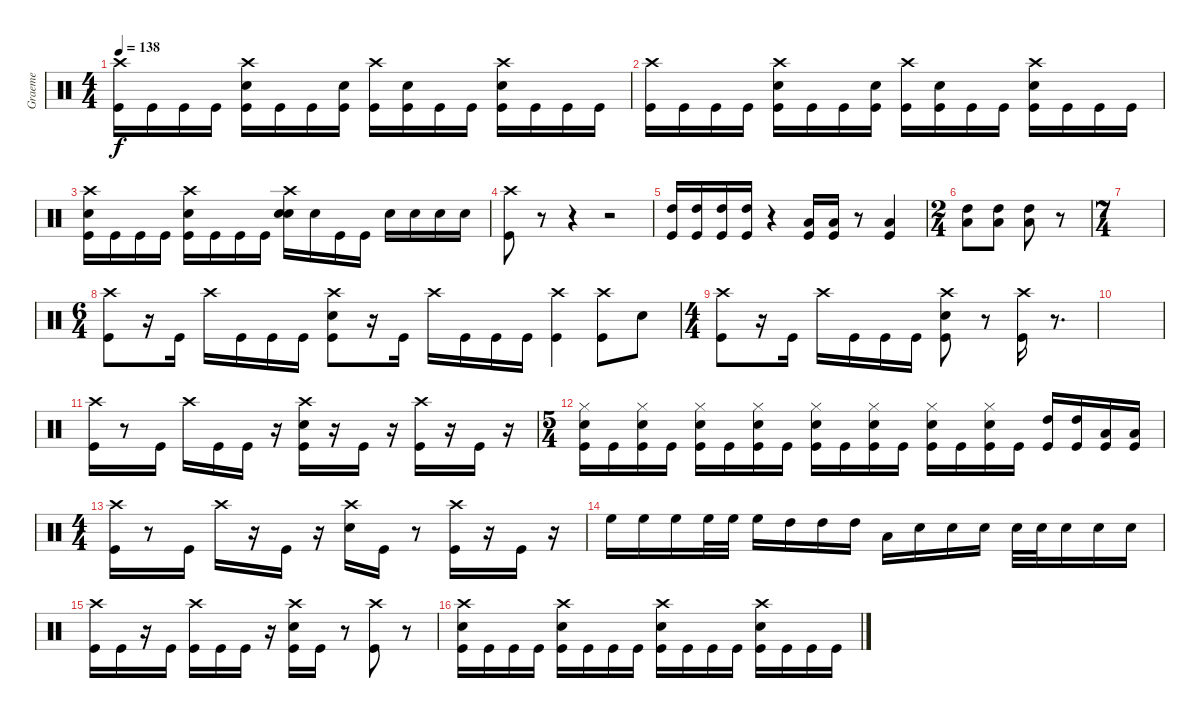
\track ("Graeme" "Graeme") {instrument percussion}
\staff {score}
\articulation defaults
\ts (4 4)
\tempo 138
\clef neutral
\ks c
("Crash high (hit)" "Kick (hit)").16{dy f} "Kick (hit)".16 "Kick (hit)".16 "Kick (hit)".16 ("Crash high (hit)" "Snare (hit) 2" "Kick (hit)").16 "Kick (hit)".16 "Kick (hit)".16 ("Snare (hit) 2" "Kick (hit)").16 ("Crash high (hit)" "Kick (hit)").16 ("Snare (hit) 2" "Kick (hit)").16 "Kick (hit)".16 "Kick (hit)".16 ("Crash high (hit)" "Snare (hit) 2" "Kick (hit)").16 "Kick (hit)".16 "Kick (hit)".16 "Kick (hit)".16 |
("Crash high (hit)" "Kick (hit)").16 "Kick (hit)".16 "Kick (hit)".16 "Kick (hit)".16 ("Crash high (hit)" "Snare (hit) 2" "Kick (hit)").16 "Kick (hit)".16 "Kick (hit)".16 ("Snare (hit) 2" "Kick (hit)").16 ("Crash high (hit)" "Kick (hit)").16 ("Snare (hit) 2" "Kick (hit)").16 "Kick (hit)".16 "Kick (hit)".16 ("Crash high (hit)" "Snare (hit) 2" "Kick (hit)").16 "Kick (hit)".16 "Kick (hit)".16 "Kick (hit)".16 |
("Crash high (hit)" "Snare (hit) 2" "Kick (hit)").16 "Kick (hit)".16 "Kick (hit)".16 "Kick (hit)".16 ("Crash high (hit)" "Snare (hit) 2" "Kick (hit)").16 "Kick (hit)".16 "Kick (hit)".16 "Kick (hit)".16 ("Crash high (hit)" "Snare (hit) 2" "Snare (hit) 2").16 "Snare (hit) 2".16 "Kick (hit)".16 "Kick (hit)".16 "Snare (hit) 2".16 "Snare (hit) 2".16 "Snare (hit) 2".16 "Snare (hit) 2".16 |
("Crash high (hit)" "Kick (hit)").8 r.8 r.4 r.2 |
("High Tom (hit)" "Kick (hit)").16 ("High Tom (hit)" "Kick (hit)").16 ("High Tom (hit)" "Kick (hit)").16 ("High Tom (hit)" "Kick (hit)").16 r.4 ("Low Floor Tom (hit)" "Kick (hit)").16 ("Low Floor Tom (hit)" "Kick (hit)").16 r.8 ("Low Floor Tom (hit)" "Kick (hit)").4 |
\ts (2 4)
("High Tom (hit)" "Low Floor Tom (hit)").8 ("High Tom (hit)" "Low Floor Tom (hit)").8 ("High Tom (hit)" "Low Floor Tom (hit)").8 r.8 |
\ts (7 4)
|
\ts (6 4)
("Crash high (hit)" "Kick (hit)").8 r.16 "Kick (hit)".16 "Crash high (hit)".16 "Kick (hit)".16 "Kick (hit)".16 "Kick (hit)".16 ("Crash high (hit)" "Snare (hit) 2" "Kick (hit)").8 r.16 "Kick (hit)".16 "Crash high (hit)".16 "Kick (hit)".16 "Kick (hit)".16 "Kick (hit)".16 ("Crash high (hit)" "Kick (hit)").4 ("Crash high (hit)" "Kick (hit)").8 "Snare (hit) 2".8 |
\ts (4 4)
("Crash high (hit)" "Kick (hit)").8 r.16 "Kick (hit)".16 "Crash high (hit)".16 "Kick (hit)".16 "Kick (hit)".16 "Kick (hit)".16 ("Crash high (hit)" "Snare (hit) 2" "Kick (hit)").8 r.8 ("Crash high (hit)" "Kick (hit)").16 r.8{d} |
|
("Crash high (hit)" "Kick (hit)").16 r.8 "Kick (hit)".16 "Crash high (hit)".16 "Kick (hit)".16 "Kick (hit)".16 r.16 ("Crash high (hit)" "Snare (hit) 2" "Kick (hit)").16 r.16 "Kick (hit)".16 r.16 ("Crash high (hit)" "Kick (hit)").16 r.16 "Kick (hit)".16 r.16 |
\ts (5 4)
("Hi-Hat (closed)" "Snare (hit) 2" "Kick (hit)").16 "Kick (hit)".16 ("Hi-Hat (closed)" "Snare (hit) 2" "Kick (hit)").16 "Kick (hit)".16 ("Hi-Hat (closed)" "Snare (hit) 2" "Kick (hit)").16 "Kick (hit)".16 ("Hi-Hat (closed)" "Snare (hit) 2" "Kick (hit)").16 "Kick (hit)".16 ("Hi-Hat (closed)" "Snare (hit) 2" "Kick (hit)").16 "Kick (hit)".16 ("Hi-Hat (closed)" "Snare (hit) 2" "Kick (hit)").16 "Kick (hit)".16 ("Hi-Hat (closed)" "Snare (hit) 2" "Kick (hit)").16 "Kick (hit)".16 ("Hi-Hat (closed)" "Snare (hit) 2" "Kick (hit)").16 "Kick (hit)".16 ("High Tom (hit)" "Kick (hit)").16 ("High Tom (hit)" "Kick (hit)").16 ("Low Floor Tom (hit)" "Kick (hit)").16 ("Low Floor Tom (hit)" "Kick (hit)").16 |
\ts (4 4)
("Crash high (hit)" "Kick (hit)").16 r.8 "Kick (hit)".16 "Crash high (hit)".16 r.16 "Kick (hit)".16 r.16 ("Crash high (hit)" "Snare (hit) 2").16 "Kick (hit)".16 r.8 ("Crash high (hit)" "Kick (hit)").16 r.16 "Kick (hit)".16 r.16 |
"High Floor Tom (hit)".16 "High Floor Tom (hit)".16 "High Floor Tom (hit)".16 "High Floor Tom (hit)".32 "High Floor Tom (hit)".32 "High Floor Tom (hit)".16 "High Tom (hit)".16 "High Tom (hit)".16 "High Tom (hit)".16 "Low Floor Tom (hit)".16 "Snare (hit) 2".16 "Snare (hit) 2".16 "Snare (hit) 2".16 "Snare (hit) 2".32 "Snare (hit) 2".32 "Snare (hit) 2".16 "Snare (hit) 2".16 "Snare (hit) 2".16 |
("Crash high (hit)" "Kick (hit)").16 "Kick (hit)".16 r.16 "Kick (hit)".16 ("Crash high (hit)" "Kick (hit)").16 "Kick (hit)".16 "Kick (hit)".16 r.16 ("Crash high (hit)" "Snare (hit) 2" "Kick (hit)").16 "Kick (hit)".16 r.8 ("Crash high (hit)" "Kick (hit)").8 r.8 |
("Crash high (hit)" "Snare (hit) 2" "Kick (hit)").16 "Kick (hit)".16 "Kick (hit)".16 "Kick (hit)".16 ("Crash high (hit)" "Snare (hit) 2" "Kick (hit)").16 "Kick (hit)".16 "Kick (hit)".16 "Kick (hit)".16 ("Crash high (hit)" "Snare (hit) 2" "Kick (hit)").16 "Kick (hit)".16 "Kick (hit)".16 "Kick (hit)".16 ("Crash high (hit)" "Snare (hit) 2" "Kick (hit)").16 "Kick (hit)".16 "Kick (hit)".16 "Kick (hit)".16
